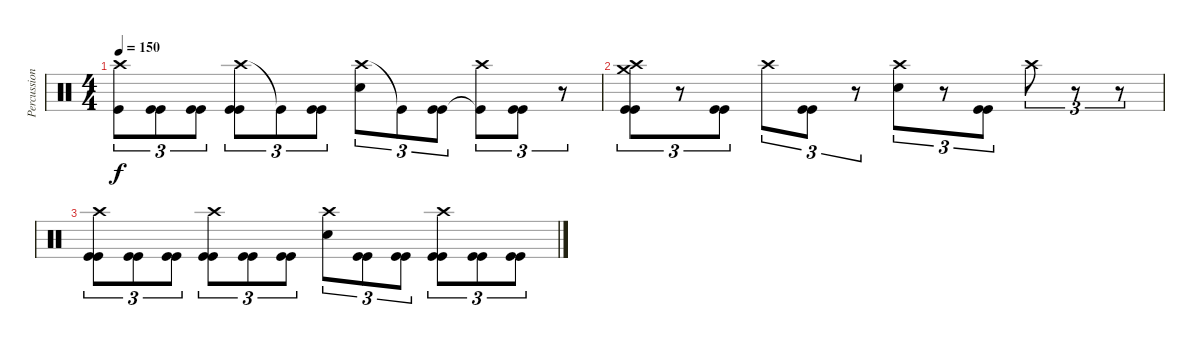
\track ("Percussion" "Percussion") {instrument percussion}
\staff {score}
\articulation defaults
\ts (4 4)
\tempo 150
\clef neutral
\ks c
("Crash high (hit)" "Kick (hit)"{t}).8{tu (3 2) dy f} ("Kick (hit)" "Kick (hit)").8{tu (3 2)} ("Kick (hit)" "Kick (hit)").8{tu (3 2)} ("Crash high (hit)" "Kick (hit)" "Kick (hit)").8{tu (3 2)} "Kick (hit)"{t}.8{tu (3 2)} ("Kick (hit)" "Kick (hit)").8{tu (3 2)} ("Crash high (hit)" "Snare (hit) 2").8{tu (3 2)} "Kick (hit)"{t}.8{tu (3 2)} ("Kick (hit)" "Kick (hit)").8{tu (3 2)} ("Crash high (hit)" "Kick (hit)"{t}).8{tu (3 2)} ("Kick (hit)" "Kick (hit)").8{tu (3 2)} r.8{tu (3 2)} |
("Crash high (hit)" "Kick (hit)" "Crash medium (hit)" "Kick (hit)").8{tu (3 2)} r.8{tu (3 2)} ("Kick (hit)" "Kick (hit)").8{tu (3 2)} "Crash high (hit)".8{tu (3 2)} ("Kick (hit)" "Kick (hit)").8{tu (3 2)} r.8{tu (3 2)} ("Crash high (hit)" "Snare (hit) 2").8{tu (3 2)} r.8{tu (3 2)} ("Kick (hit)" "Kick (hit)").8{tu (3 2)} "Crash high (hit)".8{tu (3 2)} r.8{tu (3 2)} r.8{tu (3 2)} |
("Crash high (hit)" "Kick (hit)" "Kick (hit)").8{tu (3 2)} ("Kick (hit)" "Kick (hit)").8{tu (3 2)} ("Kick (hit)" "Kick (hit)").8{tu (3 2)} ("Crash high (hit)" "Kick (hit)" "Kick (hit)").8{tu (3 2)} ("Kick (hit)" "Kick (hit)").8{tu (3 2)} ("Kick (hit)" "Kick (hit)").8{tu (3 2)} ("Crash high (hit)" "Snare (hit) 2").8{tu (3 2)} ("Kick (hit)" "Kick (hit)").8{tu (3 2)} ("Kick (hit)" "Kick (hit)").8{tu (3 2)} ("Crash high (hit)" "Kick (hit)" "Kick (hit)").8{tu (3 2)} ("Kick (hit)" "Kick (hit)").8{tu (3 2)} ("Kick (hit)" "Kick (hit)").8{tu (3 2)}
